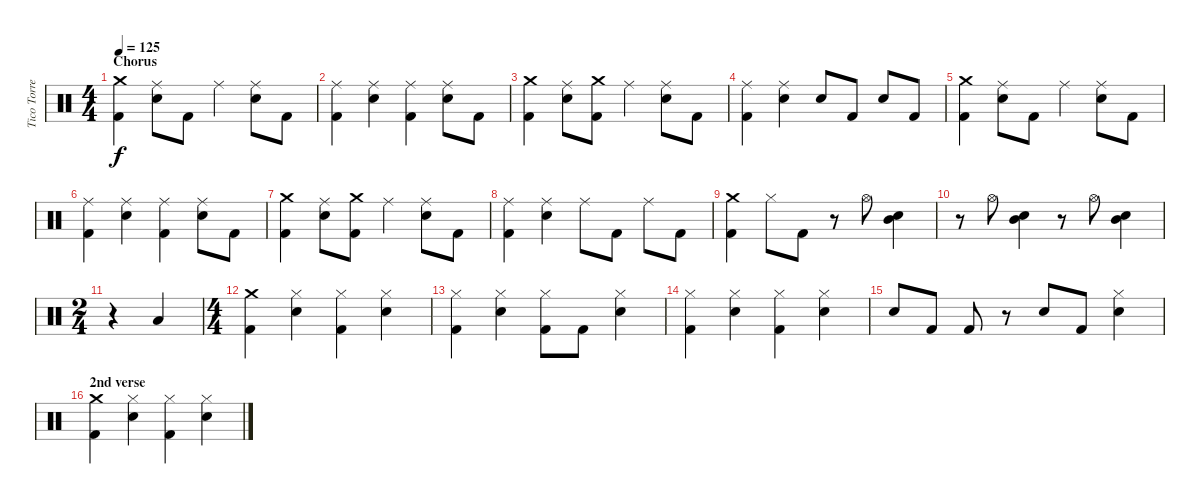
\track ("Tico Torres" "Tico Torre") {instrument percussion}
\staff {score}
\articulation defaults
\ts (4 4)
\section ("" "Chorus")
\tempo 125
\clef neutral
\ks c
("Crash medium (hit)" "Kick (hit) 2").4{dy f} ("Ride (middle)" "Snare (hit) 2").8 "Kick (hit) 2".8 "Ride (middle)".4 ("Ride (middle)" "Snare (hit) 2").8 "Kick (hit) 2".8 |
("Ride (middle)" "Kick (hit) 2").4 ("Ride (middle)" "Snare (hit) 2").4 ("Ride (middle)" "Kick (hit) 2").4 ("Ride (middle)" "Snare (hit) 2").8 "Kick (hit) 2".8 |
("Crash medium (hit)" "Kick (hit) 2").4 ("Ride (middle)" "Snare (hit) 2").8 ("Crash medium (hit)" "Kick (hit) 2").8 "Ride (middle)".4 ("Ride (middle)" "Snare (hit) 2").8 "Kick (hit) 2".8 |
("Ride (middle)" "Kick (hit) 2").4 ("Ride (middle)" "Snare (hit) 2").4 "Snare (hit) 2".8 "Kick (hit) 2".8 "Snare (hit) 2".8 "Kick (hit) 2".8 |
("Crash medium (hit)" "Kick (hit) 2").4 ("Ride (middle)" "Snare (hit) 2").8 "Kick (hit) 2".8 "Ride (middle)".4 ("Ride (middle)" "Snare (hit) 2").8 "Kick (hit) 2".8 |
("Ride (middle)" "Kick (hit) 2").4 ("Ride (middle)" "Snare (hit) 2").4 ("Ride (middle)" "Kick (hit) 2").4 ("Ride (middle)" "Snare (hit) 2").8 "Kick (hit) 2".8 |
("Crash medium (hit)" "Kick (hit) 2").4 ("Ride (middle)" "Snare (hit) 2").8 ("Crash medium (hit)" "Kick (hit) 2").8 "Ride (middle)".4 ("Ride (middle)" "Snare (hit) 2").8 "Kick (hit) 2".8 |
("Ride (middle)" "Kick (hit) 2").4 ("Ride (middle)" "Snare (hit) 2").4 "Ride (middle)".8 "Kick (hit) 2".8 "Ride (middle)".8 "Kick (hit) 2".8 |
("Crash medium (hit)" "Kick (hit) 2").4 "Hi-Hat (closed)".8 "Kick (hit) 2".8 r.8 "Hi-Hat (open)".8 ("Mid Tom (hit)" "Snare (hit) 2").4 |
r.8 "Hi-Hat (open)".8 ("Mid Tom (hit)" "Snare (hit) 2").4 r.8 "Hi-Hat (open)".8 ("Mid Tom (hit)" "Snare (hit) 2").4 |
\ts (2 4)
r.4 "Low Tom (hit)".4 |
\ts (4 4)
("Crash medium (hit)" "Kick (hit) 2").4 ("Hi-Hat (closed)" "Snare (hit) 2").4 ("Hi-Hat (closed)" "Kick (hit) 2").4 ("Hi-Hat (closed)" "Snare (hit) 2").4 |
("Hi-Hat (closed)" "Kick (hit) 2").4 ("Hi-Hat (closed)" "Snare (hit) 2").4 ("Hi-Hat (closed)" "Kick (hit) 2").8 "Kick (hit) 2".8 ("Hi-Hat (closed)" "Snare (hit) 2").4 |
("Hi-Hat (closed)" "Kick (hit) 2").4 ("Hi-Hat (closed)" "Snare (hit) 2").4 ("Hi-Hat (closed)" "Kick (hit) 2").4 ("Hi-Hat (closed)" "Snare (hit) 2").4 |
"Snare (hit) 2".8 "Kick (hit) 2".8 "Kick (hit) 2".8 r.8 "Snare (hit) 2".8 "Kick (hit) 2".8 ("Hi-Hat (closed)" "Snare (hit) 2").4 |
\section ("" "2nd verse")
("Crash medium (hit)" "Kick (hit) 2").4 ("Hi-Hat (closed)" "Snare (hit) 2").4 ("Hi-Hat (closed)" "Kick (hit) 2").4 ("Hi-Hat (closed)" "Snare (hit) 2").4
